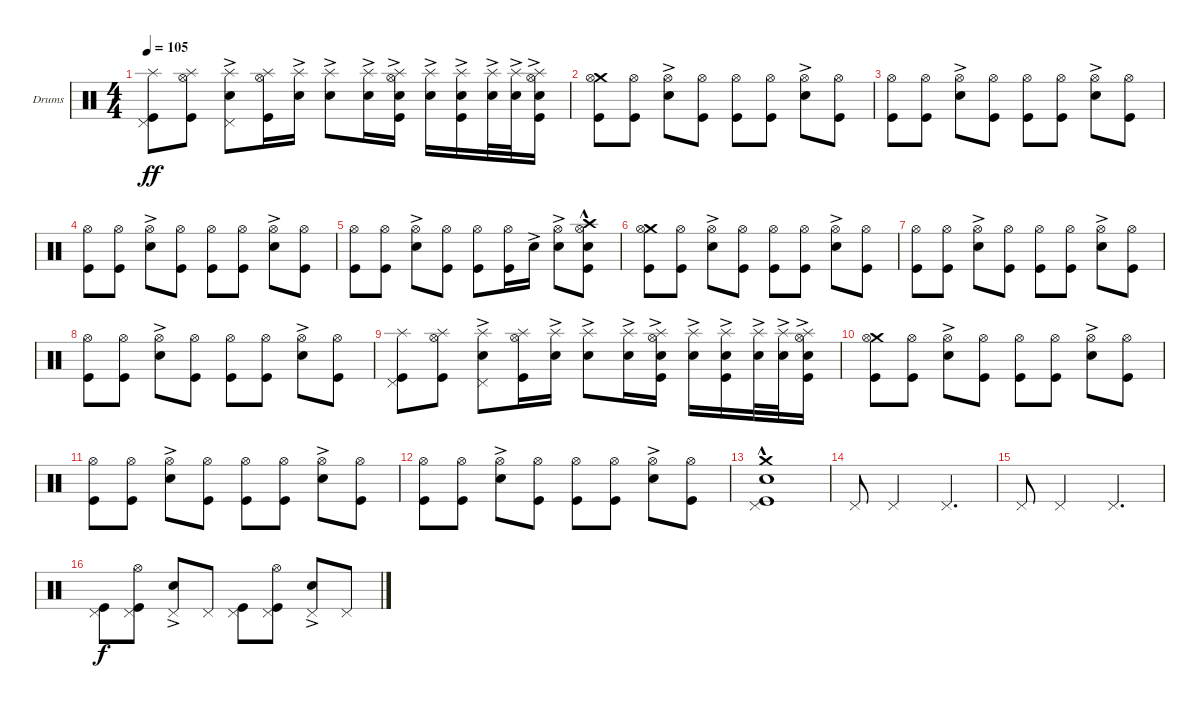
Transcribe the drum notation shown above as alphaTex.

\bracketExtendMode groupsimilarinstruments
\firstSystemTrackNameOrientation horizontal
\otherSystemsTrackNameOrientation horizontal
\track ("Drumkit" "Drums") {instrument percussion}
\staff {score}
\articulation defaults
\ts (4 4)
\tempo 105
\clef neutral
\ks c
("Kick (hit)" "Pedal Hi-Hat (hit)" "Splash (hit)").8{dy ff} ("Kick (hit)" "Hi-Hat (open)" "Splash (hit)").8 ("Pedal Hi-Hat (hit)" "Snare (hit) 2"{ac} "Splash (hit)").8 ("Kick (hit)" "Hi-Hat (open)" "Splash (hit)").16 ("Snare (hit) 2"{ac} "Splash (hit)").16 ("Snare (hit) 2"{ac} "Splash (hit)").8 ("Snare (hit) 2"{ac} "Splash (hit)").16 ("Kick (hit)" "Hi-Hat (open)" "Splash (hit)" "Snare (hit) 2"{ac}).16 ("Snare (hit) 2"{ac} "Splash (hit)").16 ("Kick (hit)" "Splash (hit)" "Snare (hit) 2"{ac}).16 ("Snare (hit) 2"{ac} "Splash (hit)").32 ("Snare (hit) 2"{ac} "Splash (hit)").32 ("Kick (hit)" "Hi-Hat (open)" "Splash (hit)" "Snare (hit) 2"{ac}).16 |
("Kick (hit)" "Crash medium (hit)" "Hi-Hat (open)").8 ("Kick (hit)" "Hi-Hat (open)").8 ("Snare (hit) 2"{ac} "Hi-Hat (open)").8 ("Kick (hit)" "Hi-Hat (open)").8 ("Kick (hit)" "Hi-Hat (open)").8 ("Kick (hit)" "Hi-Hat (open)").8 ("Snare (hit) 2"{ac} "Hi-Hat (open)").8 ("Kick (hit)" "Hi-Hat (open)").8 |
("Kick (hit)" "Hi-Hat (open)").8 ("Kick (hit)" "Hi-Hat (open)").8 ("Snare (hit) 2"{ac} "Hi-Hat (open)").8 ("Kick (hit)" "Hi-Hat (open)").8 ("Kick (hit)" "Hi-Hat (open)").8 ("Kick (hit)" "Hi-Hat (open)").8 ("Snare (hit) 2"{ac} "Hi-Hat (open)").8 ("Kick (hit)" "Hi-Hat (open)").8 |
("Kick (hit)" "Hi-Hat (open)").8 ("Kick (hit)" "Hi-Hat (open)").8 ("Snare (hit) 2"{ac} "Hi-Hat (open)").8 ("Kick (hit)" "Hi-Hat (open)").8 ("Kick (hit)" "Hi-Hat (open)").8 ("Kick (hit)" "Hi-Hat (open)").8 ("Snare (hit) 2"{ac} "Hi-Hat (open)").8 ("Kick (hit)" "Hi-Hat (open)").8 |
("Kick (hit)" "Hi-Hat (open)").8 ("Kick (hit)" "Hi-Hat (open)").8 ("Snare (hit) 2"{ac} "Hi-Hat (open)").8 ("Kick (hit)" "Hi-Hat (open)").8 ("Kick (hit)" "Hi-Hat (open)").8 ("Kick (hit)" "Hi-Hat (open)").16 "Snare (hit) 2"{ac}.16 ("Snare (hit) 2"{ac} "Hi-Hat (open)").8 ("Kick (hit)" "Hi-Hat (open)" "Snare (hit) 2"{hac} "Crash high (hit)").8 |
("Kick (hit)" "Crash medium (hit)" "Hi-Hat (open)").8 ("Kick (hit)" "Hi-Hat (open)").8 ("Snare (hit) 2"{ac} "Hi-Hat (open)").8 ("Kick (hit)" "Hi-Hat (open)").8 ("Kick (hit)" "Hi-Hat (open)").8 ("Kick (hit)" "Hi-Hat (open)").8 ("Snare (hit) 2"{ac} "Hi-Hat (open)").8 ("Kick (hit)" "Hi-Hat (open)").8 |
("Kick (hit)" "Hi-Hat (open)").8 ("Kick (hit)" "Hi-Hat (open)").8 ("Snare (hit) 2"{ac} "Hi-Hat (open)").8 ("Kick (hit)" "Hi-Hat (open)").8 ("Kick (hit)" "Hi-Hat (open)").8 ("Kick (hit)" "Hi-Hat (open)").8 ("Snare (hit) 2"{ac} "Hi-Hat (open)").8 ("Kick (hit)" "Hi-Hat (open)").8 |
("Kick (hit)" "Hi-Hat (open)").8 ("Kick (hit)" "Hi-Hat (open)").8 ("Snare (hit) 2"{ac} "Hi-Hat (open)").8 ("Kick (hit)" "Hi-Hat (open)").8 ("Kick (hit)" "Hi-Hat (open)").8 ("Kick (hit)" "Hi-Hat (open)").8 ("Snare (hit) 2"{ac} "Hi-Hat (open)").8 ("Kick (hit)" "Hi-Hat (open)").8 |
("Kick (hit)" "Pedal Hi-Hat (hit)" "Splash (hit)").8 ("Kick (hit)" "Hi-Hat (open)" "Splash (hit)").8 ("Pedal Hi-Hat (hit)" "Snare (hit) 2"{ac} "Splash (hit)").8 ("Kick (hit)" "Hi-Hat (open)" "Splash (hit)").16 ("Snare (hit) 2"{ac} "Splash (hit)").16 ("Snare (hit) 2"{ac} "Splash (hit)").8 ("Snare (hit) 2"{ac} "Splash (hit)").16 ("Kick (hit)" "Hi-Hat (open)" "Splash (hit)" "Snare (hit) 2"{ac}).16 ("Snare (hit) 2"{ac} "Splash (hit)").16 ("Kick (hit)" "Splash (hit)" "Snare (hit) 2"{ac}).16 ("Snare (hit) 2"{ac} "Splash (hit)").32 ("Snare (hit) 2"{ac} "Splash (hit)").32 ("Kick (hit)" "Hi-Hat (open)" "Splash (hit)" "Snare (hit) 2"{ac}).16 |
("Kick (hit)" "Crash medium (hit)" "Hi-Hat (open)").8 ("Kick (hit)" "Hi-Hat (open)").8 ("Snare (hit) 2"{ac} "Hi-Hat (open)").8 ("Kick (hit)" "Hi-Hat (open)").8 ("Kick (hit)" "Hi-Hat (open)").8 ("Kick (hit)" "Hi-Hat (open)").8 ("Snare (hit) 2"{ac} "Hi-Hat (open)").8 ("Kick (hit)" "Hi-Hat (open)").8 |
("Kick (hit)" "Hi-Hat (open)").8 ("Kick (hit)" "Hi-Hat (open)").8 ("Snare (hit) 2"{ac} "Hi-Hat (open)").8 ("Kick (hit)" "Hi-Hat (open)").8 ("Kick (hit)" "Hi-Hat (open)").8 ("Kick (hit)" "Hi-Hat (open)").8 ("Snare (hit) 2"{ac} "Hi-Hat (open)").8 ("Kick (hit)" "Hi-Hat (open)").8 |
("Kick (hit)" "Hi-Hat (open)").8 ("Kick (hit)" "Hi-Hat (open)").8 ("Snare (hit) 2"{ac} "Hi-Hat (open)").8 ("Kick (hit)" "Hi-Hat (open)").8 ("Kick (hit)" "Hi-Hat (open)").8 ("Kick (hit)" "Hi-Hat (open)").8 ("Snare (hit) 2"{ac} "Hi-Hat (open)").8 ("Kick (hit)" "Hi-Hat (open)").8 |
("Kick (hit)" "Snare (hit) 2" "Crash medium (hit)"{hac} "Pedal Hi-Hat (hit)").1 |
"Pedal Hi-Hat (hit)".8 "Pedal Hi-Hat (hit)".2 "Pedal Hi-Hat (hit)".4{d} |
"Pedal Hi-Hat (hit)".8 "Pedal Hi-Hat (hit)".2 "Pedal Hi-Hat (hit)".4{d} |
("Kick (hit)" "Pedal Hi-Hat (hit)").8{dy f} ("Kick (hit)" "Hi-Hat (open)" "Pedal Hi-Hat (hit)").8 ("Pedal Hi-Hat (hit)" "Snare (hit) 2"{ac}).8 "Pedal Hi-Hat (hit)".8 ("Kick (hit)" "Pedal Hi-Hat (hit)").8 ("Kick (hit)" "Hi-Hat (open)" "Pedal Hi-Hat (hit)").8 ("Pedal Hi-Hat (hit)" "Snare (hit) 2"{ac}).8 "Pedal Hi-Hat (hit)".8
